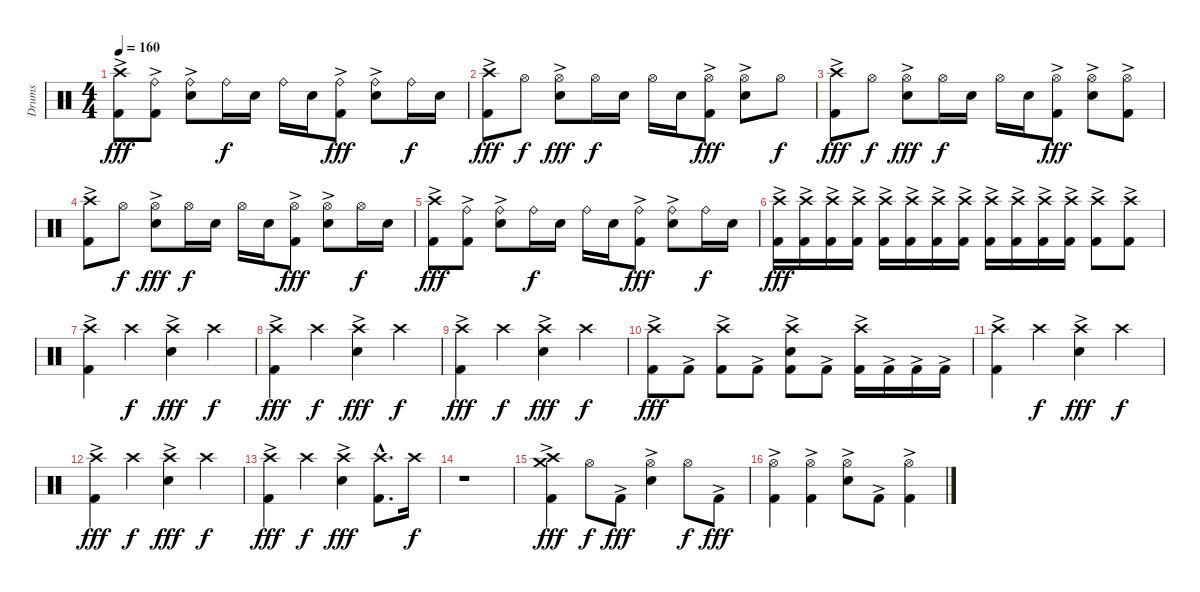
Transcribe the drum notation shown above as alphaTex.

\track ("Drums" "Drums") {instrument percussion}
\staff {score}
\articulation defaults
\ts (4 4)
\tempo 160
\clef neutral
\ks c
("Crash high (hit)" "Kick (hit) 2"{ac}).8{dy fff} ("Ride (bell)" "Kick (hit) 2"{ac}).8 ("Ride (bell)" "Snare (hit) 2"{ac}).8 "Ride (bell)".16{dy f} "Snare (hit) 2".16 "Ride (bell)".16 "Snare (hit) 2".16 ("Ride (bell)" "Kick (hit) 2"{ac}).8{dy fff} ("Ride (bell)" "Snare (hit) 2"{ac}).8 "Ride (bell)".16{dy f} "Snare (hit) 2".16 |
("Crash high (hit)" "Kick (hit) 2"{ac}).8{dy fff} "Hi-Hat (open)".8{dy f} ("Hi-Hat (open)" "Snare (hit) 2"{ac}).8{dy fff} "Hi-Hat (open)".16{dy f} "Snare (hit) 2".16 "Hi-Hat (open)".16 "Snare (hit) 2".16 ("Hi-Hat (open)" "Kick (hit) 2"{ac}).8{dy fff} ("Hi-Hat (open)" "Snare (hit) 2"{ac}).8 "Hi-Hat (open)".8{dy f} |
("Crash high (hit)" "Kick (hit) 2"{ac}).8{dy fff} "Hi-Hat (open)".8{dy f} ("Hi-Hat (open)" "Snare (hit) 2"{ac}).8{dy fff} "Hi-Hat (open)".16{dy f} "Snare (hit) 2".16 "Hi-Hat (open)".16 "Snare (hit) 2".16 ("Hi-Hat (open)" "Kick (hit) 2"{ac}).8{dy fff} ("Hi-Hat (open)" "Snare (hit) 2"{ac}).8 ("Hi-Hat (open)" "Kick (hit) 2"{ac}).8 |
("Crash high (hit)" "Kick (hit) 2"{ac}).8 "Hi-Hat (open)".8{dy f} ("Hi-Hat (open)" "Snare (hit) 2"{ac}).8{dy fff} "Hi-Hat (open)".16{dy f} "Snare (hit) 2".16 "Hi-Hat (open)".16 "Snare (hit) 2".16 ("Hi-Hat (open)" "Kick (hit) 2"{ac}).8{dy fff} ("Hi-Hat (open)" "Snare (hit) 2"{ac}).8 "Hi-Hat (open)".16{dy f} "Snare (hit) 2".16 |
("Crash high (hit)" "Kick (hit) 2"{ac}).8{dy fff} ("Ride (bell)" "Kick (hit) 2"{ac}).8 ("Ride (bell)" "Snare (hit) 2"{ac}).8 "Ride (bell)".16{dy f} "Snare (hit) 2".16 "Ride (bell)".16 "Snare (hit) 2".16 ("Ride (bell)" "Kick (hit) 2"{ac}).8{dy fff} ("Ride (bell)" "Snare (hit) 2"{ac}).8 "Ride (bell)".16{dy f} "Snare (hit) 2".16 |
("Crash high (hit)" "Kick (hit) 2"{ac}).16{dy fff} ("Crash high (hit)" "Kick (hit) 2"{ac}).16 ("Crash high (hit)" "Kick (hit) 2"{ac}).16 ("Crash high (hit)" "Kick (hit) 2"{ac}).16 ("Crash high (hit)" "Kick (hit) 2"{ac}).16 ("Crash high (hit)" "Kick (hit) 2"{ac}).16 ("Crash high (hit)" "Kick (hit) 2"{ac}).16 ("Crash high (hit)" "Kick (hit) 2"{ac}).16 ("Crash high (hit)" "Kick (hit) 2"{ac}).16 ("Crash high (hit)" "Kick (hit) 2"{ac}).16 ("Crash high (hit)" "Kick (hit) 2"{ac}).16 ("Crash high (hit)" "Kick (hit) 2"{ac}).16 ("Crash high (hit)" "Kick (hit) 2"{ac}).8 ("Crash high (hit)" "Kick (hit) 2"{ac}).8 |
("Crash high (hit)" "Kick (hit) 2"{ac}).4 "Crash high (hit)".4{dy f} ("Crash high (hit)" "Snare (hit) 2"{ac}).4{dy fff} "Crash high (hit)".4{dy f} |
("Crash high (hit)" "Kick (hit) 2"{ac}).4{dy fff} "Crash high (hit)".4{dy f} ("Crash high (hit)" "Snare (hit) 2"{ac}).4{dy fff} "Crash high (hit)".4{dy f} |
("Crash high (hit)" "Kick (hit) 2"{ac}).4{dy fff} "Crash high (hit)".4{dy f} ("Crash high (hit)" "Snare (hit) 2"{ac}).4{dy fff} "Crash high (hit)".4{dy f} |
("Crash high (hit)" "Kick (hit) 2"{ac}).8{dy fff} "Kick (hit) 2"{ac}.8 ("Crash high (hit)" "Kick (hit) 2"{ac}).8 "Kick (hit) 2"{ac}.8 ("Crash high (hit)" "Snare (hit) 2"{ac} "Kick (hit) 2"{ac}).8 "Kick (hit) 2"{ac}.8 ("Crash high (hit)" "Kick (hit) 2"{ac}).16 "Kick (hit) 2"{ac}.16 "Kick (hit) 2"{ac}.16 "Kick (hit) 2"{ac}.16 |
("Crash high (hit)" "Kick (hit) 2"{ac}).4 "Crash high (hit)".4{dy f} ("Crash high (hit)" "Snare (hit) 2"{ac}).4{dy fff} "Crash high (hit)".4{dy f} |
("Crash high (hit)" "Kick (hit) 2"{ac}).4{dy fff} "Crash high (hit)".4{dy f} ("Crash high (hit)" "Snare (hit) 2"{ac}).4{dy fff} "Crash high (hit)".4{dy f} |
("Crash high (hit)" "Kick (hit) 2"{ac}).4{dy fff} "Crash high (hit)".4{dy f} ("Crash high (hit)" "Snare (hit) 2"{ac}).4{dy fff} ("Crash high (hit)"{hac} "Kick (hit) 2"{hac}).8{d} "Crash high (hit)".16{dy f volume 4} |
r.1 |
("Crash high (hit)" "Crash medium (hit)" "Kick (hit) 2"{ac}).4{dy fff volume 15} "Hi-Hat (open)".8{dy f} "Kick (hit) 2"{ac}.8{dy fff} ("Hi-Hat (open)" "Snare (hit) 2"{ac}).4 "Hi-Hat (open)".8{dy f} "Kick (hit) 2"{ac}.8{dy fff} |
("Hi-Hat (open)" "Kick (hit) 2"{ac}).4 ("Hi-Hat (open)" "Kick (hit) 2"{ac}).4 ("Hi-Hat (open)" "Snare (hit) 2"{ac}).8 "Kick (hit) 2"{ac}.8 ("Hi-Hat (open)" "Kick (hit) 2"{ac}).4
